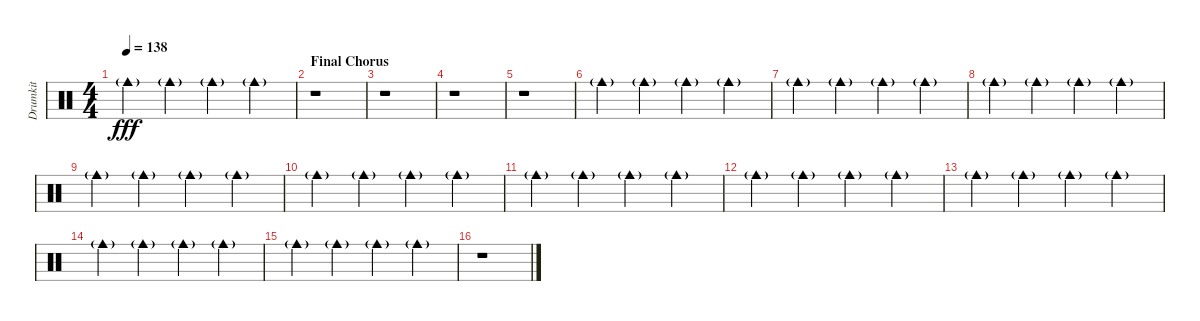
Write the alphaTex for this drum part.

\track ("Drumkit" "Drumkit") {instrument percussion}
\staff {score}
\articulation defaults
\ts (4 4)
\tempo 138
\clef neutral
\ks c "Cowbell medium (hit)"{g}.4{dy fff} "Cowbell medium (hit)"{g}.4 "Cowbell medium (hit)"{g}.4 "Cowbell medium (hit)"{g}.4
|
\section ("" "Final Chorus")
r.1 |
r.1 |
r.1 |
r.1 |
"Cowbell medium (hit)"{g}.4 "Cowbell medium (hit)"{g}.4 "Cowbell medium (hit)"{g}.4 "Cowbell medium (hit)"{g}.4 |
"Cowbell medium (hit)"{g}.4 "Cowbell medium (hit)"{g}.4 "Cowbell medium (hit)"{g}.4 "Cowbell medium (hit)"{g}.4 |
"Cowbell medium (hit)"{g}.4 "Cowbell medium (hit)"{g}.4 "Cowbell medium (hit)"{g}.4 "Cowbell medium (hit)"{g}.4 |
"Cowbell medium (hit)"{g}.4 "Cowbell medium (hit)"{g}.4 "Cowbell medium (hit)"{g}.4 "Cowbell medium (hit)"{g}.4 |
"Cowbell medium (hit)"{g}.4 "Cowbell medium (hit)"{g}.4 "Cowbell medium (hit)"{g}.4 "Cowbell medium (hit)"{g}.4 |
"Cowbell medium (hit)"{g}.4 "Cowbell medium (hit)"{g}.4 "Cowbell medium (hit)"{g}.4 "Cowbell medium (hit)"{g}.4 |
"Cowbell medium (hit)"{g}.4 "Cowbell medium (hit)"{g}.4 "Cowbell medium (hit)"{g}.4 "Cowbell medium (hit)"{g}.4 |
"Cowbell medium (hit)"{g}.4 "Cowbell medium (hit)"{g}.4 "Cowbell medium (hit)"{g}.4 "Cowbell medium (hit)"{g}.4 |
"Cowbell medium (hit)"{g}.4 "Cowbell medium (hit)"{g}.4 "Cowbell medium (hit)"{g}.4 "Cowbell medium (hit)"{g}.4 |
"Cowbell medium (hit)"{g}.4 "Cowbell medium (hit)"{g}.4 "Cowbell medium (hit)"{g}.4 "Cowbell medium (hit)"{g}.4 |
r.1
